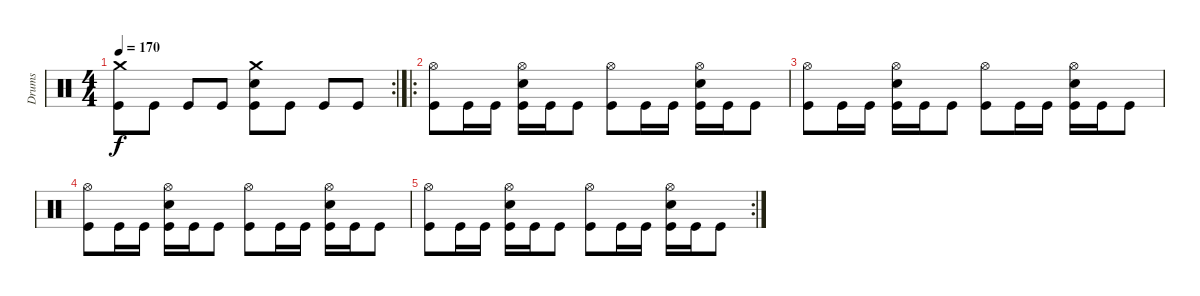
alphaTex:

\track ("Drums" "Drums") {instrument percussion}
\staff {score}
\articulation defaults
\rc 2
\ts (4 4)
\tempo 170
\clef neutral
\ks c
("Crash medium (hit)" "Kick (hit)").8{dy f} "Kick (hit)".8 "Kick (hit)".8 "Kick (hit)".8 ("Crash medium (hit)" "Snare (hit) 2" "Kick (hit)").8 "Kick (hit)".8 "Kick (hit)".8 "Kick (hit)".8 |
\ro
("Hi-Hat (open)" "Kick (hit)").8 "Kick (hit)".16 "Kick (hit)".16 ("Hi-Hat (open)" "Snare (hit) 2" "Kick (hit)").16 "Kick (hit)".16 "Kick (hit)".8 ("Hi-Hat (open)" "Kick (hit)").8 "Kick (hit)".16 "Kick (hit)".16 ("Hi-Hat (open)" "Snare (hit) 2" "Kick (hit)").16 "Kick (hit)".16 "Kick (hit)".8 |
("Hi-Hat (open)" "Kick (hit)").8 "Kick (hit)".16 "Kick (hit)".16 ("Hi-Hat (open)" "Snare (hit) 2" "Kick (hit)").16 "Kick (hit)".16 "Kick (hit)".8 ("Hi-Hat (open)" "Kick (hit)").8 "Kick (hit)".16 "Kick (hit)".16 ("Hi-Hat (open)" "Snare (hit) 2" "Kick (hit)").16 "Kick (hit)".16 "Kick (hit)".8 |
("Hi-Hat (open)" "Kick (hit)").8 "Kick (hit)".16 "Kick (hit)".16 ("Hi-Hat (open)" "Snare (hit) 2" "Kick (hit)").16 "Kick (hit)".16 "Kick (hit)".8 ("Hi-Hat (open)" "Kick (hit)").8 "Kick (hit)".16 "Kick (hit)".16 ("Hi-Hat (open)" "Snare (hit) 2" "Kick (hit)").16 "Kick (hit)".16 "Kick (hit)".8 |
\rc 2
("Hi-Hat (open)" "Kick (hit)").8 "Kick (hit)".16 "Kick (hit)".16 ("Hi-Hat (open)" "Snare (hit) 2" "Kick (hit)").16 "Kick (hit)".16 "Kick (hit)".8 ("Hi-Hat (open)" "Kick (hit)").8 "Kick (hit)".16 "Kick (hit)".16 ("Hi-Hat (open)" "Snare (hit) 2" "Kick (hit)").16 "Kick (hit)".16 "Kick (hit)".8
